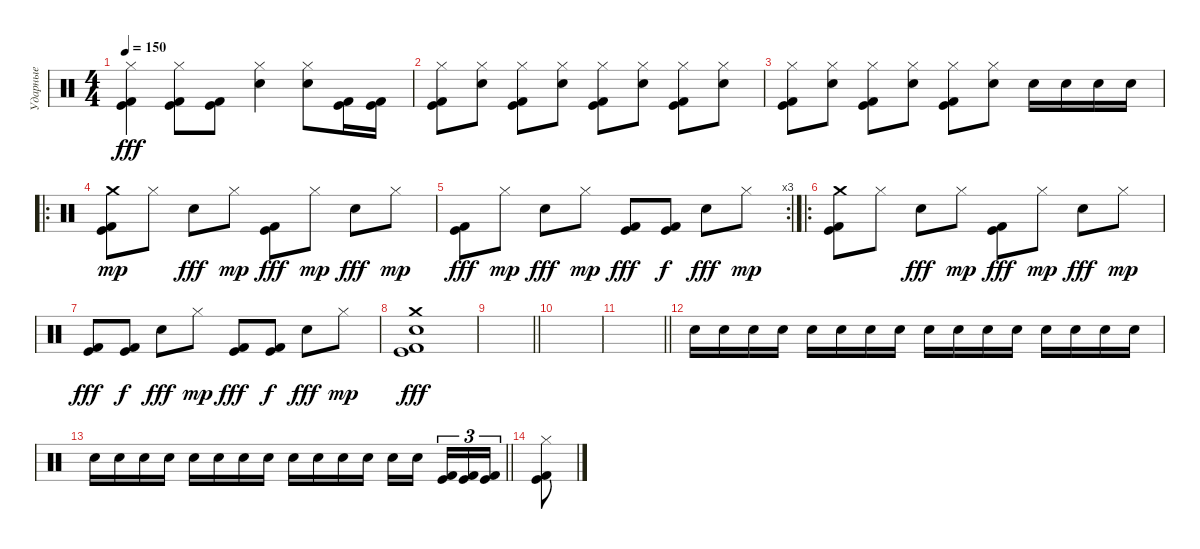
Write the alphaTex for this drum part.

\track ("Ударные" "Ударные") {instrument percussion}
\staff {score}
\articulation defaults
\ts (4 4)
\tempo 150
\clef neutral
\ks c
("Hi-Hat (closed)" "Kick (hit)" "Kick (hit) 2").4{dy fff} ("Hi-Hat (closed)" "Kick (hit)" "Kick (hit) 2").8 ("Kick (hit)" "Kick (hit) 2").8 ("Hi-Hat (closed)" "Snare (hit) 2").4 ("Hi-Hat (closed)" "Snare (hit) 2").8 ("Kick (hit)" "Kick (hit) 2").16 ("Kick (hit)" "Kick (hit) 2").16 |
("Kick (hit)" "Kick (hit) 2" "Hi-Hat (closed)").8 ("Snare (hit) 2" "Hi-Hat (closed)").8 ("Kick (hit)" "Kick (hit) 2" "Hi-Hat (closed)").8 ("Snare (hit) 2" "Hi-Hat (closed)").8 ("Kick (hit)" "Kick (hit) 2" "Hi-Hat (closed)").8 ("Snare (hit) 2" "Hi-Hat (closed)").8 ("Kick (hit)" "Kick (hit) 2" "Hi-Hat (closed)").8 ("Snare (hit) 2" "Hi-Hat (closed)").8 |
("Kick (hit)" "Kick (hit) 2" "Hi-Hat (closed)").8 ("Snare (hit) 2" "Hi-Hat (closed)").8 ("Kick (hit)" "Kick (hit) 2" "Hi-Hat (closed)").8 ("Snare (hit) 2" "Hi-Hat (closed)").8 ("Kick (hit)" "Kick (hit) 2" "Hi-Hat (closed)").8 ("Snare (hit) 2" "Hi-Hat (closed)").8 "Snare (hit) 2".16 "Snare (hit) 2".16 "Snare (hit) 2".16 "Snare (hit) 2".16 |
\ro
("Kick (hit) 2" "Kick (hit)" "Crash medium (hit)").8{dy mp} "Hi-Hat (closed)".8 "Snare (hit) 2".8{dy fff} "Hi-Hat (closed)".8{dy mp} ("Kick (hit) 2" "Kick (hit)").8{dy fff} "Hi-Hat (closed)".8{dy mp} "Snare (hit) 2".8{dy fff} "Hi-Hat (closed)".8{dy mp} |
\rc 3
("Kick (hit) 2" "Kick (hit)").8{dy fff} "Hi-Hat (closed)".8{dy mp} "Snare (hit) 2".8{dy fff} "Hi-Hat (closed)".8{dy mp} ("Kick (hit) 2" "Kick (hit)").8{dy fff} ("Kick (hit) 2" "Kick (hit)").8{dy f} "Snare (hit) 2".8{dy fff} "Hi-Hat (closed)".8{dy mp} |
\ro
("Kick (hit) 2" "Kick (hit)" "Crash medium (hit)").8 "Hi-Hat (closed)".8 "Snare (hit) 2".8{dy fff} "Hi-Hat (closed)".8{dy mp} ("Kick (hit) 2" "Kick (hit)").8{dy fff} "Hi-Hat (closed)".8{dy mp} "Snare (hit) 2".8{dy fff} "Hi-Hat (closed)".8{dy mp} |
("Kick (hit) 2" "Kick (hit)").8{dy fff} ("Kick (hit) 2" "Kick (hit)").8{dy f} "Snare (hit) 2".8{dy fff} "Hi-Hat (closed)".8{dy mp} ("Kick (hit) 2" "Kick (hit)").8{dy fff} ("Kick (hit)" "Kick (hit) 2").8{dy f} "Snare (hit) 2".8{dy fff} "Hi-Hat (closed)".8{dy mp} |
("Crash medium (hit)" "Kick (hit) 2" "Kick (hit)" "Snare (hit) 2").1{dy fff} |
\barLineRight lightlight
|
|
\barLineRight lightlight
|
"Snare (hit) 2".16{volume 8} "Snare (hit) 2".16 "Snare (hit) 2".16 "Snare (hit) 2".16 "Snare (hit) 2".16 "Snare (hit) 2".16 "Snare (hit) 2".16 "Snare (hit) 2".16 "Snare (hit) 2".16 "Snare (hit) 2".16 "Snare (hit) 2".16 "Snare (hit) 2".16 "Snare (hit) 2".16 "Snare (hit) 2".16 "Snare (hit) 2".16 "Snare (hit) 2".16 |
\barLineRight lightlight "Snare (hit) 2".16{volume 16} "Snare (hit) 2".16 "Snare (hit) 2".16 "Snare (hit) 2".16 "Snare (hit) 2".16 "Snare (hit) 2".16 "Snare (hit) 2".16 "Snare (hit) 2".16 "Snare (hit) 2".16 "Snare (hit) 2".16 "Snare (hit) 2".16 "Snare (hit) 2".16 "Snare (hit) 2".16 "Snare (hit) 2".16{beam splitsecondary}
("Kick (hit)" "Kick (hit) 2").16{tu (3 2)} ("Kick (hit)" "Kick (hit) 2").16{tu (3 2)} ("Kick (hit)" "Kick (hit) 2").16{tu (3 2)} |
("Kick (hit)" "Kick (hit) 2" "Hi-Hat (closed)").8
